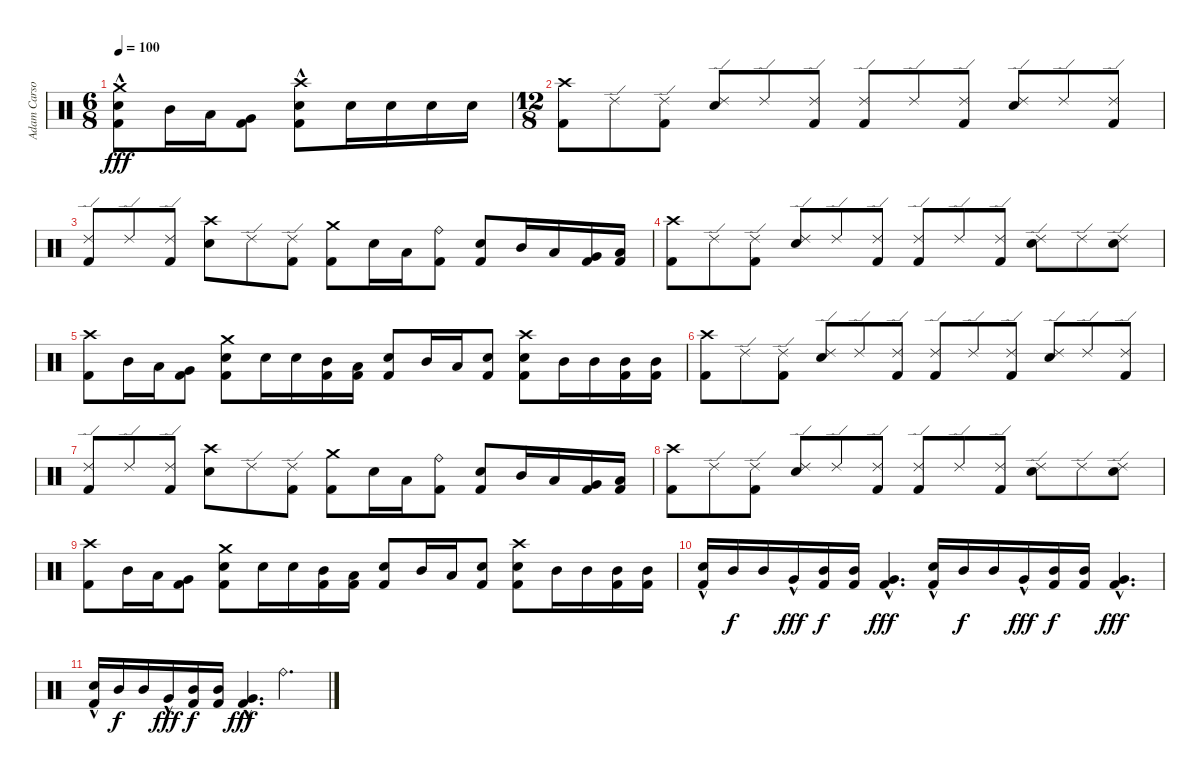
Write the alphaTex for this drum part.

\track ("Adam Carson" "Adam Carso") {instrument percussion}
\staff {score}
\articulation defaults
\ts (6 8)
\tempo 100
\clef neutral
\ks aminor
("Crash medium (hit)" "Electric Snare (hit)"{hac} "Kick (hit) 2").8{dy fff} "Mid Tom (hit)".16 "Low Tom (hit)".16 ("Very Low Tom (hit)" "Kick (hit) 2").8 ("Crash high (hit)" "Electric Snare (hit)"{hac} "Kick (hit) 2").8 "Electric Snare (hit)".16 "Electric Snare (hit)".16 "Electric Snare (hit)".16 "Electric Snare (hit)".16 |
\ts (12 8)
("Crash high (hit)" "Kick (hit) 2").8 "Ride (edge) 2".8 ("Ride (edge) 2" "Kick (hit) 2").8 ("Ride (edge) 2" "Electric Snare (hit)").8 "Ride (edge) 2".8 ("Ride (edge) 2" "Kick (hit) 2").8 ("Ride (edge) 2" "Kick (hit) 2").8 "Ride (edge) 2".8 ("Ride (edge) 2" "Kick (hit) 2").8 ("Ride (edge) 2" "Electric Snare (hit)").8 "Ride (edge) 2".8 ("Ride (edge) 2" "Kick (hit) 2").8 |
("Ride (edge) 2" "Kick (hit) 2").8 "Ride (edge) 2".8 ("Ride (edge) 2" "Kick (hit) 2").8 ("Crash high (hit)" "Electric Snare (hit)").8 "Ride (edge) 2".8 ("Ride (edge) 2" "Kick (hit) 2").8 ("Crash medium (hit)" "Kick (hit) 2").8 "Electric Snare (hit)".16 "Low Tom (hit)".16 ("Ride (bell)" "Kick (hit) 2").8 ("Electric Snare (hit)" "Kick (hit) 2").8 "Mid Tom (hit)".16 "Low Tom (hit)".16 ("Very Low Tom (hit)" "Kick (hit) 2").16 ("Low Floor Tom (hit)" "Kick (hit) 2").16 |
("Crash high (hit)" "Kick (hit) 2").8 "Ride (edge) 2".8 ("Ride (edge) 2" "Kick (hit) 2").8 ("Ride (edge) 2" "Electric Snare (hit)").8 "Ride (edge) 2".8 ("Ride (edge) 2" "Kick (hit) 2").8 ("Ride (edge) 2" "Kick (hit) 2").8 "Ride (edge) 2".8 ("Ride (edge) 2" "Kick (hit) 2").8 ("Ride (edge) 2" "Electric Snare (hit)").8 "Ride (edge) 2".8 ("Ride (edge) 2" "Electric Snare (hit)").8 |
("Crash high (hit)" "Kick (hit) 2").8 "Mid Tom (hit)".16 "Low Tom (hit)".16 ("Very Low Tom (hit)" "Kick (hit) 2").8 ("Crash medium (hit)" "Electric Snare (hit)" "Kick (hit) 2").8 "Electric Snare (hit)".16 "Electric Snare (hit)".16 ("Mid Tom (hit)" "Kick (hit) 2").16 ("Low Tom (hit)" "Kick (hit) 2").16 ("Electric Snare (hit)" "Kick (hit) 2").8 "Mid Tom (hit)".16 "Low Tom (hit)".16 ("Electric Snare (hit)" "Kick (hit) 2").8 ("Crash high (hit)" "Electric Snare (hit)" "Kick (hit) 2").8 "Mid Tom (hit)".16 "Mid Tom (hit)".16 ("Mid Tom (hit)" "Kick (hit) 2").16 ("Mid Tom (hit)" "Kick (hit) 2").16 |
("Crash high (hit)" "Kick (hit) 2").8 "Ride (edge) 2".8 ("Ride (edge) 2" "Kick (hit) 2").8 ("Ride (edge) 2" "Electric Snare (hit)").8 "Ride (edge) 2".8 ("Ride (edge) 2" "Kick (hit) 2").8 ("Ride (edge) 2" "Kick (hit) 2").8 "Ride (edge) 2".8 ("Ride (edge) 2" "Kick (hit) 2").8 ("Ride (edge) 2" "Electric Snare (hit)").8 "Ride (edge) 2".8 ("Ride (edge) 2" "Kick (hit) 2").8 |
("Ride (edge) 2" "Kick (hit) 2").8 "Ride (edge) 2".8 ("Ride (edge) 2" "Kick (hit) 2").8 ("Crash high (hit)" "Electric Snare (hit)").8 "Ride (edge) 2".8 ("Ride (edge) 2" "Kick (hit) 2").8 ("Crash medium (hit)" "Kick (hit) 2").8 "Electric Snare (hit)".16 "Low Tom (hit)".16 ("Ride (bell)" "Kick (hit) 2").8 ("Electric Snare (hit)" "Kick (hit) 2").8 "Mid Tom (hit)".16 "Low Tom (hit)".16 ("Very Low Tom (hit)" "Kick (hit) 2").16 ("Low Floor Tom (hit)" "Kick (hit) 2").16 |
("Crash high (hit)" "Kick (hit) 2").8 "Ride (edge) 2".8 ("Ride (edge) 2" "Kick (hit) 2").8 ("Ride (edge) 2" "Electric Snare (hit)").8 "Ride (edge) 2".8 ("Ride (edge) 2" "Kick (hit) 2").8 ("Ride (edge) 2" "Kick (hit) 2").8 "Ride (edge) 2".8 ("Ride (edge) 2" "Kick (hit) 2").8 ("Ride (edge) 2" "Electric Snare (hit)").8 "Ride (edge) 2".8 ("Ride (edge) 2" "Electric Snare (hit)").8 |
("Crash high (hit)" "Kick (hit) 2").8 "Mid Tom (hit)".16 "Low Tom (hit)".16 ("Very Low Tom (hit)" "Kick (hit) 2").8 ("Crash medium (hit)" "Electric Snare (hit)" "Kick (hit) 2").8 "Electric Snare (hit)".16 "Electric Snare (hit)".16 ("Mid Tom (hit)" "Kick (hit) 2").16 ("Low Tom (hit)" "Kick (hit) 2").16 ("Electric Snare (hit)" "Kick (hit) 2").8 "Mid Tom (hit)".16 "Low Tom (hit)".16 ("Electric Snare (hit)" "Kick (hit) 2").8 ("Crash high (hit)" "Electric Snare (hit)" "Kick (hit) 2").8 "Mid Tom (hit)".16 "Mid Tom (hit)".16 ("Mid Tom (hit)" "Kick (hit) 2").16 ("Mid Tom (hit)" "Kick (hit) 2").16 |
("Electric Snare (hit)"{hac} "Kick (hit) 2").16 "Mid Tom (hit)".16{dy f} "Mid Tom (hit)".16 "Very Low Tom (hit)"{hac}.16{dy fff} ("Mid Tom (hit)" "Kick (hit) 2").16{dy f} ("Mid Tom (hit)" "Kick (hit) 2").16 ("Very Low Tom (hit)"{hac} "Kick (hit) 2").4{d dy fff} ("Electric Snare (hit)"{hac} "Kick (hit) 2").16 "Mid Tom (hit)".16{dy f} "Mid Tom (hit)".16 "Very Low Tom (hit)"{hac}.16{dy fff} ("Mid Tom (hit)" "Kick (hit) 2").16{dy f} ("Mid Tom (hit)" "Kick (hit) 2").16 ("Very Low Tom (hit)"{hac} "Kick (hit) 2").4{d dy fff} |
("Electric Snare (hit)"{hac} "Kick (hit) 2").16 "Mid Tom (hit)".16{dy f} "Mid Tom (hit)".16 "Very Low Tom (hit)"{hac}.16{dy fff} ("Mid Tom (hit)" "Kick (hit) 2").16{dy f} ("Mid Tom (hit)" "Kick (hit) 2").16 ("Very Low Tom (hit)"{hac} "Kick (hit) 2").4{d dy fff} "Ride (bell)".2{d}
